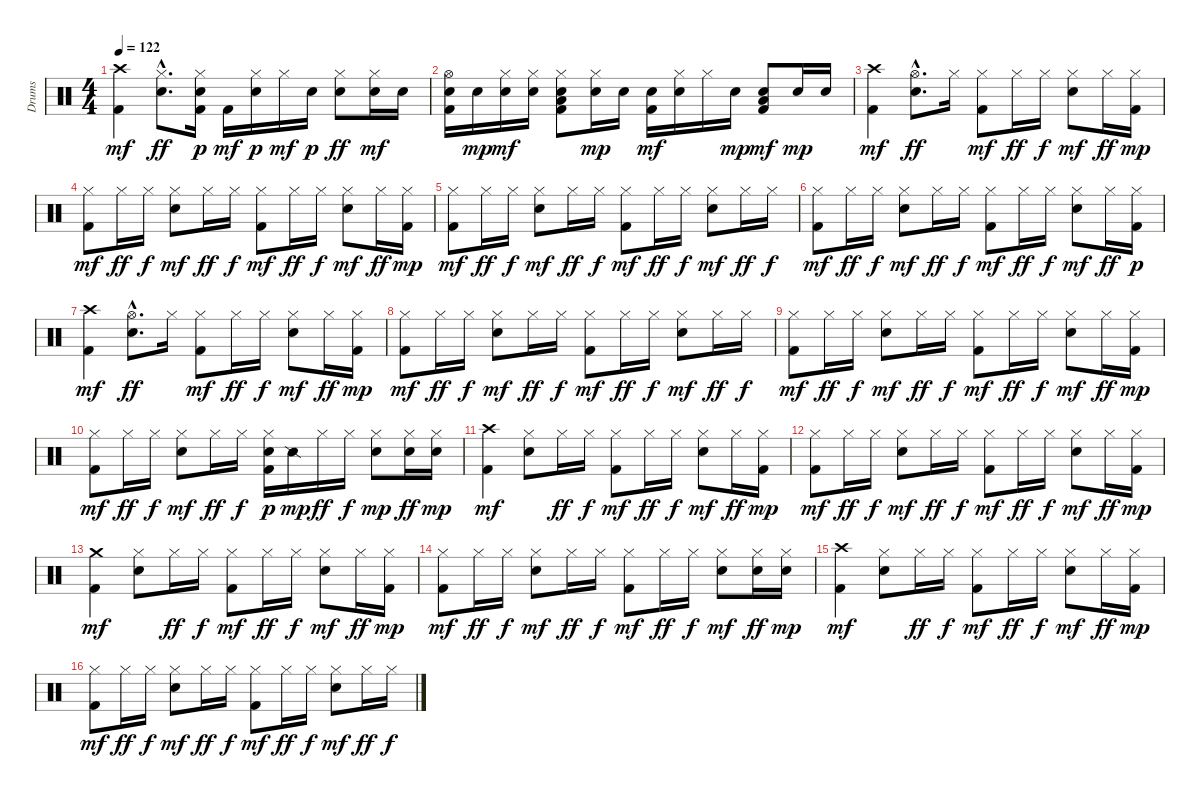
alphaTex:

\track ("Drums" "Drums") {instrument percussion}
\staff {score}
\articulation defaults
\ts (4 4)
\tempo 122
\clef neutral
\ks c
("Kick (hit) 2" "Crash high (hit)").4{dy mf} ("Snare (hit) 2"{hac} "Hi-Hat (closed)"{hac}).8{d dy ff} ("Hi-Hat (closed)" "Kick (hit) 2" "Snare (hit) 2").16{dy p} "Kick (hit) 2".16{dy mf} ("Hi-Hat (closed)" "Snare (hit) 2").16{dy p} "Hi-Hat (closed)".16{dy mf} "Snare (hit) 2".16{dy p} ("Snare (hit) 2" "Hi-Hat (closed)").8{dy ff} ("Hi-Hat (closed)" "Snare (hit) 2").16{dy mf} "Snare (hit) 2".16 |
("Snare (hit) 2" "Kick (hit) 2" "Hi-Hat (open)").16 "Snare (hit) 2".16{dy mp} ("Hi-Hat (closed)" "Snare (hit) 2").16{dy mf} ("Snare (hit) 2" "Hi-Hat (closed)").16 ("Snare (hit) 2" "Low Floor Tom (hit)" "Hi-Hat (closed)" "Kick (hit) 2").8 ("Hi-Hat (closed)" "Snare (hit) 2").16{dy mp} "Snare (hit) 2".16 ("Snare (hit) 2" "Kick (hit) 2").16{dy mf} ("Snare (hit) 2" "Hi-Hat (closed)").16 "Hi-Hat (closed)".16 "Snare (hit) 2".16{dy mp} ("Snare (hit) 2" "Low Floor Tom (hit)" "Kick (hit) 2").8{dy mf} "Snare (hit) 2".16{dy mp} "Snare (hit) 2".16 |
("Kick (hit) 2" "Crash high (hit)").4{dy mf} ("Snare (hit) 2"{hac} "Hi-Hat (open)"{hac}).8{d dy ff} "Hi-Hat (closed)".16 ("Hi-Hat (closed)" "Kick (hit) 2").8{dy mf} "Hi-Hat (closed)".16{dy ff} "Hi-Hat (closed)".16{dy f} ("Hi-Hat (closed)" "Snare (hit) 2").8{dy mf} "Hi-Hat (closed)".16{dy ff} ("Hi-Hat (closed)" "Kick (hit) 2").16{dy mp} |
("Hi-Hat (closed)" "Kick (hit) 2").8{dy mf} "Hi-Hat (closed)".16{dy ff} "Hi-Hat (closed)".16{dy f} ("Hi-Hat (closed)" "Snare (hit) 2").8{dy mf} "Hi-Hat (closed)".16{dy ff} "Hi-Hat (closed)".16{dy f} ("Hi-Hat (closed)" "Kick (hit) 2").8{dy mf} "Hi-Hat (closed)".16{dy ff} "Hi-Hat (closed)".16{dy f} ("Hi-Hat (closed)" "Snare (hit) 2").8{dy mf} "Hi-Hat (closed)".16{dy ff} ("Hi-Hat (closed)" "Kick (hit) 2").16{dy mp} |
("Hi-Hat (closed)" "Kick (hit) 2").8{dy mf} "Hi-Hat (closed)".16{dy ff} "Hi-Hat (closed)".16{dy f} ("Hi-Hat (closed)" "Snare (hit) 2").8{dy mf} "Hi-Hat (closed)".16{dy ff} "Hi-Hat (closed)".16{dy f} ("Hi-Hat (closed)" "Kick (hit) 2").8{dy mf} "Hi-Hat (closed)".16{dy ff} "Hi-Hat (closed)".16{dy f} ("Hi-Hat (closed)" "Snare (hit) 2").8{dy mf} "Hi-Hat (closed)".16{dy ff} "Hi-Hat (closed)".16{dy f} |
("Hi-Hat (closed)" "Kick (hit) 2").8{dy mf} "Hi-Hat (closed)".16{dy ff} "Hi-Hat (closed)".16{dy f} ("Hi-Hat (closed)" "Snare (hit) 2").8{dy mf} "Hi-Hat (closed)".16{dy ff} "Hi-Hat (closed)".16{dy f} ("Hi-Hat (closed)" "Kick (hit) 2").8{dy mf} "Hi-Hat (closed)".16{dy ff} "Hi-Hat (closed)".16{dy f} ("Hi-Hat (closed)" "Snare (hit) 2").8{dy mf} "Hi-Hat (closed)".16{dy ff} ("Kick (hit) 2" "Hi-Hat (closed)").16{dy p} |
("Kick (hit) 2" "Crash high (hit)").4{dy mf} ("Snare (hit) 2"{hac} "Hi-Hat (open)"{hac}).8{d dy ff} "Hi-Hat (closed)".16 ("Hi-Hat (closed)" "Kick (hit) 2").8{dy mf} "Hi-Hat (closed)".16{dy ff} "Hi-Hat (closed)".16{dy f} ("Hi-Hat (closed)" "Snare (hit) 2").8{dy mf} "Hi-Hat (closed)".16{dy ff} ("Hi-Hat (closed)" "Kick (hit) 2").16{dy mp} |
("Hi-Hat (closed)" "Kick (hit) 2").8{dy mf} "Hi-Hat (closed)".16{dy ff} "Hi-Hat (closed)".16{dy f} ("Hi-Hat (closed)" "Snare (hit) 2").8{dy mf} "Hi-Hat (closed)".16{dy ff} "Hi-Hat (closed)".16{dy f} ("Hi-Hat (closed)" "Kick (hit) 2").8{dy mf} "Hi-Hat (closed)".16{dy ff} "Hi-Hat (closed)".16{dy f} ("Hi-Hat (closed)" "Snare (hit) 2").8{dy mf} "Hi-Hat (closed)".16{dy ff} "Hi-Hat (closed)".16{dy f} |
("Hi-Hat (closed)" "Kick (hit) 2").8{dy mf} "Hi-Hat (closed)".16{dy ff} "Hi-Hat (closed)".16{dy f} ("Hi-Hat (closed)" "Snare (hit) 2").8{dy mf} "Hi-Hat (closed)".16{dy ff} "Hi-Hat (closed)".16{dy f} ("Hi-Hat (closed)" "Kick (hit) 2").8{dy mf} "Hi-Hat (closed)".16{dy ff} "Hi-Hat (closed)".16{dy f} ("Hi-Hat (closed)" "Snare (hit) 2").8{dy mf} "Hi-Hat (closed)".16{dy ff} ("Hi-Hat (closed)" "Kick (hit) 2").16{dy mp} |
("Hi-Hat (closed)" "Kick (hit) 2").8{dy mf} "Hi-Hat (closed)".16{dy ff} "Hi-Hat (closed)".16{dy f} ("Hi-Hat (closed)" "Snare (hit) 2").8{dy mf} "Hi-Hat (closed)".16{dy ff} "Hi-Hat (closed)".16{dy f} ("Hi-Hat (closed)" "Kick (hit) 2" "Snare (hit) 2").16{dy p} "Snare (side stick) 2".16{dy mp} "Hi-Hat (closed)".16{dy ff} "Hi-Hat (closed)".16{dy f} ("Hi-Hat (closed)" "Snare (hit) 2").8{dy mp} ("Snare (hit) 2" "Hi-Hat (closed)").16{dy ff} ("Hi-Hat (closed)" "Snare (hit) 2").16{dy mp} |
("Kick (hit) 2" "Crash high (hit)").4{dy mf} ("Hi-Hat (closed)" "Snare (hit) 2").8 "Hi-Hat (closed)".16{dy ff} "Hi-Hat (closed)".16{dy f} ("Hi-Hat (closed)" "Kick (hit) 2").8{dy mf} "Hi-Hat (closed)".16{dy ff} "Hi-Hat (closed)".16{dy f} ("Hi-Hat (closed)" "Snare (hit) 2").8{dy mf} "Hi-Hat (closed)".16{dy ff} ("Hi-Hat (closed)" "Kick (hit) 2").16{dy mp} |
("Hi-Hat (closed)" "Kick (hit) 2").8{dy mf} "Hi-Hat (closed)".16{dy ff} "Hi-Hat (closed)".16{dy f} ("Hi-Hat (closed)" "Snare (hit) 2").8{dy mf} "Hi-Hat (closed)".16{dy ff} "Hi-Hat (closed)".16{dy f} ("Hi-Hat (closed)" "Kick (hit) 2").8{dy mf} "Hi-Hat (closed)".16{dy ff} "Hi-Hat (closed)".16{dy f} ("Hi-Hat (closed)" "Snare (hit) 2").8{dy mf} "Hi-Hat (closed)".16{dy ff} ("Hi-Hat (closed)" "Kick (hit) 2").16{dy mp} |
("Kick (hit) 2" "Crash medium (hit)").4{dy mf} ("Hi-Hat (closed)" "Snare (hit) 2").8 "Hi-Hat (closed)".16{dy ff} "Hi-Hat (closed)".16{dy f} ("Hi-Hat (closed)" "Kick (hit) 2").8{dy mf} "Hi-Hat (closed)".16{dy ff} "Hi-Hat (closed)".16{dy f} ("Hi-Hat (closed)" "Snare (hit) 2").8{dy mf} "Hi-Hat (closed)".16{dy ff} ("Hi-Hat (closed)" "Kick (hit) 2").16{dy mp} |
("Hi-Hat (closed)" "Kick (hit) 2").8{dy mf} "Hi-Hat (closed)".16{dy ff} "Hi-Hat (closed)".16{dy f} ("Hi-Hat (closed)" "Snare (hit) 2").8{dy mf} "Hi-Hat (closed)".16{dy ff} "Hi-Hat (closed)".16{dy f} ("Hi-Hat (closed)" "Kick (hit) 2").8{dy mf} "Hi-Hat (closed)".16{dy ff} "Hi-Hat (closed)".16{dy f} ("Hi-Hat (closed)" "Snare (hit) 2").8{dy mf} ("Snare (hit) 2" "Hi-Hat (closed)").16{dy ff} ("Hi-Hat (closed)" "Snare (hit) 2").16{dy mp} |
("Kick (hit) 2" "Crash high (hit)").4{dy mf} ("Hi-Hat (closed)" "Snare (hit) 2").8 "Hi-Hat (closed)".16{dy ff} "Hi-Hat (closed)".16{dy f} ("Hi-Hat (closed)" "Kick (hit) 2").8{dy mf} "Hi-Hat (closed)".16{dy ff} "Hi-Hat (closed)".16{dy f} ("Hi-Hat (closed)" "Snare (hit) 2").8{dy mf} "Hi-Hat (closed)".16{dy ff} ("Hi-Hat (closed)" "Kick (hit) 2").16{dy mp} |
("Hi-Hat (closed)" "Kick (hit) 2").8{dy mf} "Hi-Hat (closed)".16{dy ff} "Hi-Hat (closed)".16{dy f} ("Hi-Hat (closed)" "Snare (hit) 2").8{dy mf} "Hi-Hat (closed)".16{dy ff} "Hi-Hat (closed)".16{dy f} ("Hi-Hat (closed)" "Kick (hit) 2").8{dy mf} "Hi-Hat (closed)".16{dy ff} "Hi-Hat (closed)".16{dy f} ("Hi-Hat (closed)" "Snare (hit) 2").8{dy mf} "Hi-Hat (closed)".16{dy ff} "Hi-Hat (closed)".16{dy f}
